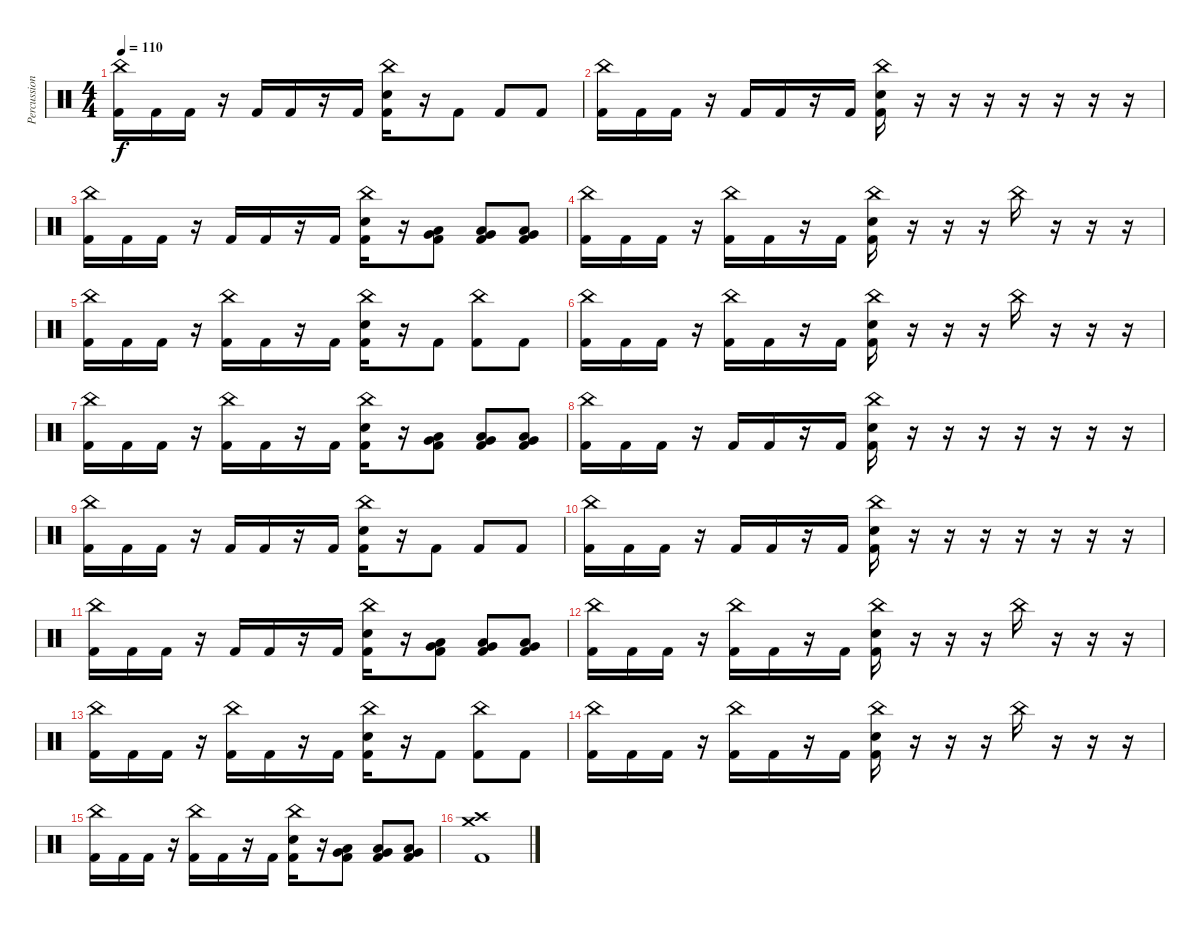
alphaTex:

\track ("Percussion" "Percussion") {instrument percussion}
\staff {score}
\articulation defaults
\ts (4 4)
\tempo 110
\clef neutral
\ks c
("China (hit)" "Kick (hit) 2").16{dy f} "Kick (hit) 2".16 "Kick (hit) 2".16 r.16 "Kick (hit) 2".16 "Kick (hit) 2".16 r.16 "Kick (hit) 2".16 ("China (hit)" "Electric Snare (hit)" "Kick (hit) 2").16 r.16 "Kick (hit) 2".8 "Kick (hit) 2".8 "Kick (hit) 2".8 |
("China (hit)" "Kick (hit) 2").16 "Kick (hit) 2".16 "Kick (hit) 2".16 r.16 "Kick (hit) 2".16 "Kick (hit) 2".16 r.16 "Kick (hit) 2".16 ("China (hit)" "Electric Snare (hit)" "Kick (hit) 2").16 r.16 r.16 r.16 r.16 r.16 r.16 r.16 |
("China (hit)" "Kick (hit) 2").16 "Kick (hit) 2".16 "Kick (hit) 2".16 r.16 "Kick (hit) 2".16 "Kick (hit) 2".16 r.16 "Kick (hit) 2".16 ("China (hit)" "Electric Snare (hit)" "Kick (hit) 2").16 r.16 ("Low Tom (hit)" "Very Low Tom (hit)" "Kick (hit) 2").8 ("Low Tom (hit)" "Very Low Tom (hit)" "Kick (hit) 2").8 ("Low Tom (hit)" "Very Low Tom (hit)" "Kick (hit) 2").8 |
("China (hit)" "Kick (hit) 2").16 "Kick (hit) 2".16 "Kick (hit) 2".16 r.16 ("China (hit)" "Kick (hit) 2").16 "Kick (hit) 2".16 r.16 "Kick (hit) 2".16 ("China (hit)" "Electric Snare (hit)" "Kick (hit) 2").16 r.16 r.16 r.16 "China (hit)".16 r.16 r.16 r.16 |
("China (hit)" "Kick (hit) 2").16 "Kick (hit) 2".16 "Kick (hit) 2".16 r.16 ("China (hit)" "Kick (hit) 2").16 "Kick (hit) 2".16 r.16 "Kick (hit) 2".16 ("China (hit)" "Electric Snare (hit)" "Kick (hit) 2").16 r.16 "Kick (hit) 2".8 ("China (hit)" "Kick (hit) 2").8 "Kick (hit) 2".8 |
("China (hit)" "Kick (hit) 2").16 "Kick (hit) 2".16 "Kick (hit) 2".16 r.16 ("China (hit)" "Kick (hit) 2").16 "Kick (hit) 2".16 r.16 "Kick (hit) 2".16 ("China (hit)" "Electric Snare (hit)" "Kick (hit) 2").16 r.16 r.16 r.16 "China (hit)".16 r.16 r.16 r.16 |
("China (hit)" "Kick (hit) 2").16 "Kick (hit) 2".16 "Kick (hit) 2".16 r.16 ("China (hit)" "Kick (hit) 2").16 "Kick (hit) 2".16 r.16 "Kick (hit) 2".16 ("China (hit)" "Electric Snare (hit)" "Kick (hit) 2").16 r.16 ("Very Low Tom (hit)" "Low Tom (hit)" "Kick (hit) 2").8 ("Very Low Tom (hit)" "Low Tom (hit)" "Kick (hit) 2").8 ("Very Low Tom (hit)" "Low Tom (hit)" "Kick (hit) 2").8 |
("China (hit)" "Kick (hit) 2").16 "Kick (hit) 2".16 "Kick (hit) 2".16 r.16 "Kick (hit) 2".16 "Kick (hit) 2".16 r.16 "Kick (hit) 2".16 ("China (hit)" "Electric Snare (hit)" "Kick (hit) 2").16 r.16 r.16 r.16 r.16 r.16 r.16 r.16 |
("China (hit)" "Kick (hit) 2").16 "Kick (hit) 2".16 "Kick (hit) 2".16 r.16 "Kick (hit) 2".16 "Kick (hit) 2".16 r.16 "Kick (hit) 2".16 ("China (hit)" "Electric Snare (hit)" "Kick (hit) 2").16 r.16 "Kick (hit) 2".8 "Kick (hit) 2".8 "Kick (hit) 2".8 |
("China (hit)" "Kick (hit) 2").16 "Kick (hit) 2".16 "Kick (hit) 2".16 r.16 "Kick (hit) 2".16 "Kick (hit) 2".16 r.16 "Kick (hit) 2".16 ("China (hit)" "Electric Snare (hit)" "Kick (hit) 2").16 r.16 r.16 r.16 r.16 r.16 r.16 r.16 |
("China (hit)" "Kick (hit) 2").16 "Kick (hit) 2".16 "Kick (hit) 2".16 r.16 "Kick (hit) 2".16 "Kick (hit) 2".16 r.16 "Kick (hit) 2".16 ("China (hit)" "Electric Snare (hit)" "Kick (hit) 2").16 r.16 ("Low Tom (hit)" "Very Low Tom (hit)" "Kick (hit) 2").8 ("Low Tom (hit)" "Very Low Tom (hit)" "Kick (hit) 2").8 ("Low Tom (hit)" "Very Low Tom (hit)" "Kick (hit) 2").8 |
("China (hit)" "Kick (hit) 2").16 "Kick (hit) 2".16 "Kick (hit) 2".16 r.16 ("China (hit)" "Kick (hit) 2").16 "Kick (hit) 2".16 r.16 "Kick (hit) 2".16 ("China (hit)" "Electric Snare (hit)" "Kick (hit) 2").16 r.16 r.16 r.16 "China (hit)".16 r.16 r.16 r.16 |
("China (hit)" "Kick (hit) 2").16 "Kick (hit) 2".16 "Kick (hit) 2".16 r.16 ("China (hit)" "Kick (hit) 2").16 "Kick (hit) 2".16 r.16 "Kick (hit) 2".16 ("China (hit)" "Electric Snare (hit)" "Kick (hit) 2").16 r.16 "Kick (hit) 2".8 ("China (hit)" "Kick (hit) 2").8 "Kick (hit) 2".8 |
("China (hit)" "Kick (hit) 2").16 "Kick (hit) 2".16 "Kick (hit) 2".16 r.16 ("China (hit)" "Kick (hit) 2").16 "Kick (hit) 2".16 r.16 "Kick (hit) 2".16 ("China (hit)" "Electric Snare (hit)" "Kick (hit) 2").16 r.16 r.16 r.16 "China (hit)".16 r.16 r.16 r.16 |
("China (hit)" "Kick (hit) 2").16 "Kick (hit) 2".16 "Kick (hit) 2".16 r.16 ("China (hit)" "Kick (hit) 2").16 "Kick (hit) 2".16 r.16 "Kick (hit) 2".16 ("China (hit)" "Electric Snare (hit)" "Kick (hit) 2").16 r.16 ("Very Low Tom (hit)" "Low Tom (hit)" "Kick (hit) 2").8 ("Very Low Tom (hit)" "Low Tom (hit)" "Kick (hit) 2").8 ("Very Low Tom (hit)" "Low Tom (hit)" "Kick (hit) 2").8 |
("Crash medium (hit)" "Crash high (hit)" "Kick (hit) 2").1
